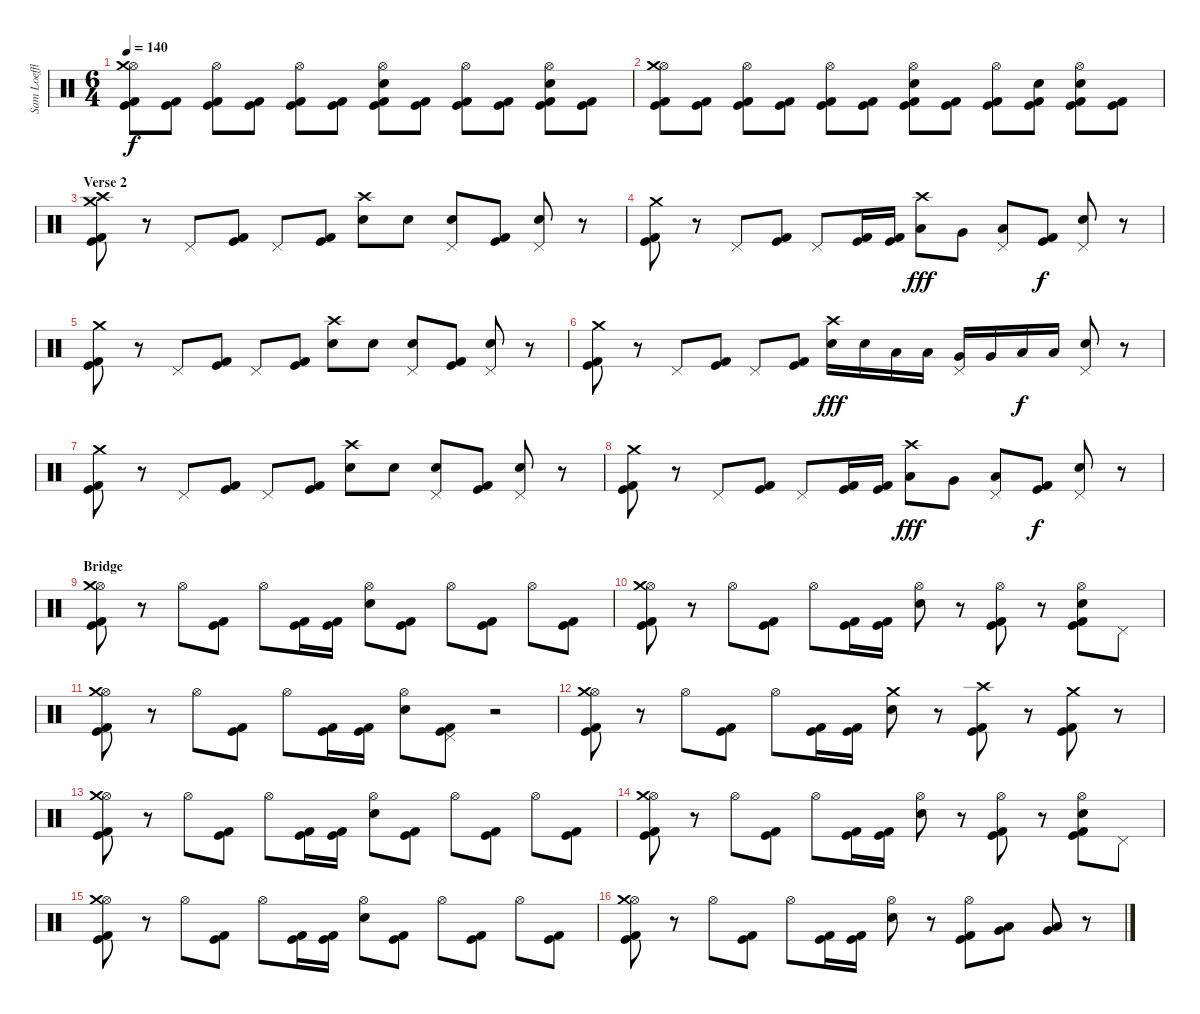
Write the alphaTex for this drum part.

\track ("Sam Loeffler - Drums" "Sam Loeffl") {instrument percussion}
\staff {score}
\articulation defaults
\ts (6 4)
\tempo 140
\clef neutral
\ks c
("Hi-Hat (open)" "Crash medium (hit)" "Kick (hit)" "Kick (hit) 2").8{dy f} ("Kick (hit)" "Kick (hit) 2").8 ("Hi-Hat (open)" "Kick (hit)" "Kick (hit) 2").8 ("Kick (hit)" "Kick (hit) 2").8 ("Hi-Hat (open)" "Kick (hit)" "Kick (hit) 2").8 ("Kick (hit)" "Kick (hit) 2").8 ("Hi-Hat (open)" "Electric Snare (hit)" "Kick (hit)" "Kick (hit) 2").8 ("Kick (hit)" "Kick (hit) 2").8 ("Hi-Hat (open)" "Kick (hit)" "Kick (hit) 2").8 ("Kick (hit)" "Kick (hit) 2").8 ("Hi-Hat (open)" "Electric Snare (hit)" "Kick (hit)" "Kick (hit) 2").8 ("Kick (hit)" "Kick (hit) 2").8 |
("Hi-Hat (open)" "Crash medium (hit)" "Kick (hit)" "Kick (hit) 2").8 ("Kick (hit)" "Kick (hit) 2").8 ("Hi-Hat (open)" "Kick (hit)" "Kick (hit) 2").8 ("Kick (hit)" "Kick (hit) 2").8 ("Hi-Hat (open)" "Kick (hit)" "Kick (hit) 2").8 ("Kick (hit)" "Kick (hit) 2").8 ("Hi-Hat (open)" "Electric Snare (hit)" "Kick (hit)" "Kick (hit) 2").8 ("Kick (hit)" "Kick (hit) 2").8 ("Hi-Hat (open)" "Kick (hit)" "Kick (hit) 2").8 ("Electric Snare (hit)" "Kick (hit)" "Kick (hit) 2").8 ("Hi-Hat (open)" "Electric Snare (hit)" "Kick (hit)" "Kick (hit) 2").8 ("Kick (hit)" "Kick (hit) 2").8 |
\section ("" "Verse 2")
("Crash high (hit)" "Crash medium (hit)" "Kick (hit)" "Kick (hit) 2").8 r.8 "Pedal Hi-Hat (hit)".8 ("Kick (hit)" "Kick (hit) 2").8 "Pedal Hi-Hat (hit)".8 ("Kick (hit)" "Kick (hit) 2").8 ("Crash high (hit)" "Electric Snare (hit)").8 "Electric Snare (hit)".8 ("Pedal Hi-Hat (hit)" "Electric Snare (hit)").8 ("Kick (hit)" "Kick (hit) 2").8 ("Pedal Hi-Hat (hit)" "Electric Snare (hit)").8 r.8 |
("Crash medium (hit)" "Kick (hit)" "Kick (hit) 2").8 r.8 "Pedal Hi-Hat (hit)".8 ("Kick (hit)" "Kick (hit) 2").8 "Pedal Hi-Hat (hit)".8 ("Kick (hit)" "Kick (hit) 2").16 ("Kick (hit)" "Kick (hit) 2").16 ("Crash high (hit)" "Low Tom (hit)").8{dy fff} "Very Low Tom (hit)".8 ("Pedal Hi-Hat (hit)" "Low Floor Tom (hit)").8 ("Kick (hit)" "Kick (hit) 2").8{dy f} ("Pedal Hi-Hat (hit)" "Electric Snare (hit)").8 r.8 |
("Crash medium (hit)" "Kick (hit)" "Kick (hit) 2").8 r.8 "Pedal Hi-Hat (hit)".8 ("Kick (hit)" "Kick (hit) 2").8 "Pedal Hi-Hat (hit)".8 ("Kick (hit)" "Kick (hit) 2").8 ("Crash high (hit)" "Electric Snare (hit)").8 "Electric Snare (hit)".8 ("Pedal Hi-Hat (hit)" "Electric Snare (hit)").8 ("Kick (hit)" "Kick (hit) 2").8 ("Pedal Hi-Hat (hit)" "Electric Snare (hit)").8 r.8 |
("Crash medium (hit)" "Kick (hit)" "Kick (hit) 2").8 r.8 "Pedal Hi-Hat (hit)".8 ("Kick (hit)" "Kick (hit) 2").8 "Pedal Hi-Hat (hit)".8 ("Kick (hit)" "Kick (hit) 2").8 ("Crash high (hit)" "Electric Snare (hit)").16{dy fff} "Electric Snare (hit)".16 "Low Tom (hit)".16 "Low Tom (hit)".16 ("Pedal Hi-Hat (hit)" "Very Low Tom (hit)").16 "Very Low Tom (hit)".16 "Low Floor Tom (hit)".16{dy f} "Low Floor Tom (hit)".16 ("Pedal Hi-Hat (hit)" "Electric Snare (hit)").8 r.8 |
("Crash medium (hit)" "Kick (hit)" "Kick (hit) 2").8 r.8 "Pedal Hi-Hat (hit)".8 ("Kick (hit)" "Kick (hit) 2").8 "Pedal Hi-Hat (hit)".8 ("Kick (hit)" "Kick (hit) 2").8 ("Crash high (hit)" "Electric Snare (hit)").8 "Electric Snare (hit)".8 ("Pedal Hi-Hat (hit)" "Electric Snare (hit)").8 ("Kick (hit)" "Kick (hit) 2").8 ("Pedal Hi-Hat (hit)" "Electric Snare (hit)").8 r.8 |
("Crash medium (hit)" "Kick (hit)" "Kick (hit) 2").8 r.8 "Pedal Hi-Hat (hit)".8 ("Kick (hit)" "Kick (hit) 2").8 "Pedal Hi-Hat (hit)".8 ("Kick (hit)" "Kick (hit) 2").16 ("Kick (hit)" "Kick (hit) 2").16 ("Crash high (hit)" "Low Tom (hit)").8{dy fff} "Very Low Tom (hit)".8 ("Pedal Hi-Hat (hit)" "Low Floor Tom (hit)").8 ("Kick (hit)" "Kick (hit) 2").8{dy f} ("Pedal Hi-Hat (hit)" "Electric Snare (hit)").8 r.8 |
\section ("" "Bridge")
("Hi-Hat (open)" "Crash medium (hit)" "Kick (hit)" "Kick (hit) 2").8 r.8 "Hi-Hat (open)".8 ("Kick (hit)" "Kick (hit) 2").8 "Hi-Hat (open)".8 ("Kick (hit)" "Kick (hit) 2").16 ("Kick (hit)" "Kick (hit) 2").16 ("Hi-Hat (open)" "Electric Snare (hit)").8 ("Kick (hit)" "Kick (hit) 2").8 "Hi-Hat (open)".8 ("Kick (hit)" "Kick (hit) 2").8 "Hi-Hat (open)".8 ("Kick (hit)" "Kick (hit) 2").8 |
("Hi-Hat (open)" "Crash medium (hit)" "Kick (hit)" "Kick (hit) 2").8 r.8 "Hi-Hat (open)".8 ("Kick (hit)" "Kick (hit) 2").8 "Hi-Hat (open)".8 ("Kick (hit)" "Kick (hit) 2").16 ("Kick (hit)" "Kick (hit) 2").16 ("Hi-Hat (open)" "Electric Snare (hit)").8 r.8 ("Hi-Hat (open)" "Kick (hit)" "Kick (hit) 2").8 r.8 ("Hi-Hat (open)" "Electric Snare (hit)" "Kick (hit)" "Kick (hit) 2").8 "Pedal Hi-Hat (hit)".8 |
("Hi-Hat (open)" "Crash medium (hit)" "Kick (hit)" "Kick (hit) 2").8 r.8 "Hi-Hat (open)".8 ("Kick (hit)" "Kick (hit) 2").8 "Hi-Hat (open)".8 ("Kick (hit)" "Kick (hit) 2").16 ("Kick (hit)" "Kick (hit) 2").16 ("Hi-Hat (open)" "Electric Snare (hit)").8 ("Pedal Hi-Hat (hit)" "Kick (hit)" "Kick (hit) 2").8 r.2 |
("Hi-Hat (open)" "Crash medium (hit)" "Kick (hit)" "Kick (hit) 2").8 r.8 "Hi-Hat (open)".8 ("Kick (hit)" "Kick (hit) 2").8 "Hi-Hat (open)".8 ("Kick (hit)" "Kick (hit) 2").16 ("Kick (hit)" "Kick (hit) 2").16 ("Crash medium (hit)" "Electric Snare (hit)").8 r.8 ("Crash high (hit)" "Kick (hit)" "Kick (hit) 2").8 r.8 ("Crash medium (hit)" "Kick (hit)" "Kick (hit) 2").8 r.8 |
("Hi-Hat (open)" "Crash medium (hit)" "Kick (hit)" "Kick (hit) 2").8 r.8 "Hi-Hat (open)".8 ("Kick (hit)" "Kick (hit) 2").8 "Hi-Hat (open)".8 ("Kick (hit)" "Kick (hit) 2").16 ("Kick (hit)" "Kick (hit) 2").16 ("Hi-Hat (open)" "Electric Snare (hit)").8 ("Kick (hit)" "Kick (hit) 2").8 "Hi-Hat (open)".8 ("Kick (hit)" "Kick (hit) 2").8 "Hi-Hat (open)".8 ("Kick (hit)" "Kick (hit) 2").8 |
("Hi-Hat (open)" "Crash medium (hit)" "Kick (hit)" "Kick (hit) 2").8 r.8 "Hi-Hat (open)".8 ("Kick (hit)" "Kick (hit) 2").8 "Hi-Hat (open)".8 ("Kick (hit)" "Kick (hit) 2").16 ("Kick (hit)" "Kick (hit) 2").16 ("Hi-Hat (open)" "Electric Snare (hit)").8 r.8 ("Hi-Hat (open)" "Kick (hit)" "Kick (hit) 2").8 r.8 ("Hi-Hat (open)" "Electric Snare (hit)" "Kick (hit)" "Kick (hit) 2").8 "Pedal Hi-Hat (hit)".8 |
("Hi-Hat (open)" "Crash medium (hit)" "Kick (hit)" "Kick (hit) 2").8 r.8 "Hi-Hat (open)".8 ("Kick (hit)" "Kick (hit) 2").8 "Hi-Hat (open)".8 ("Kick (hit)" "Kick (hit) 2").16 ("Kick (hit)" "Kick (hit) 2").16 ("Hi-Hat (open)" "Electric Snare (hit)").8 ("Kick (hit)" "Kick (hit) 2").8 "Hi-Hat (open)".8 ("Kick (hit)" "Kick (hit) 2").8 "Hi-Hat (open)".8 ("Kick (hit)" "Kick (hit) 2").8 |
("Hi-Hat (open)" "Crash medium (hit)" "Kick (hit)" "Kick (hit) 2").8 r.8 "Hi-Hat (open)".8 ("Kick (hit)" "Kick (hit) 2").8 "Hi-Hat (open)".8 ("Kick (hit)" "Kick (hit) 2").16 ("Kick (hit)" "Kick (hit) 2").16 ("Hi-Hat (open)" "Electric Snare (hit)").8 r.8 ("Hi-Hat (open)" "Kick (hit)" "Kick (hit) 2").8 ("Low Tom (hit)" "Very Low Tom (hit)").8 ("Low Tom (hit)" "Very Low Tom (hit)").8 r.8
